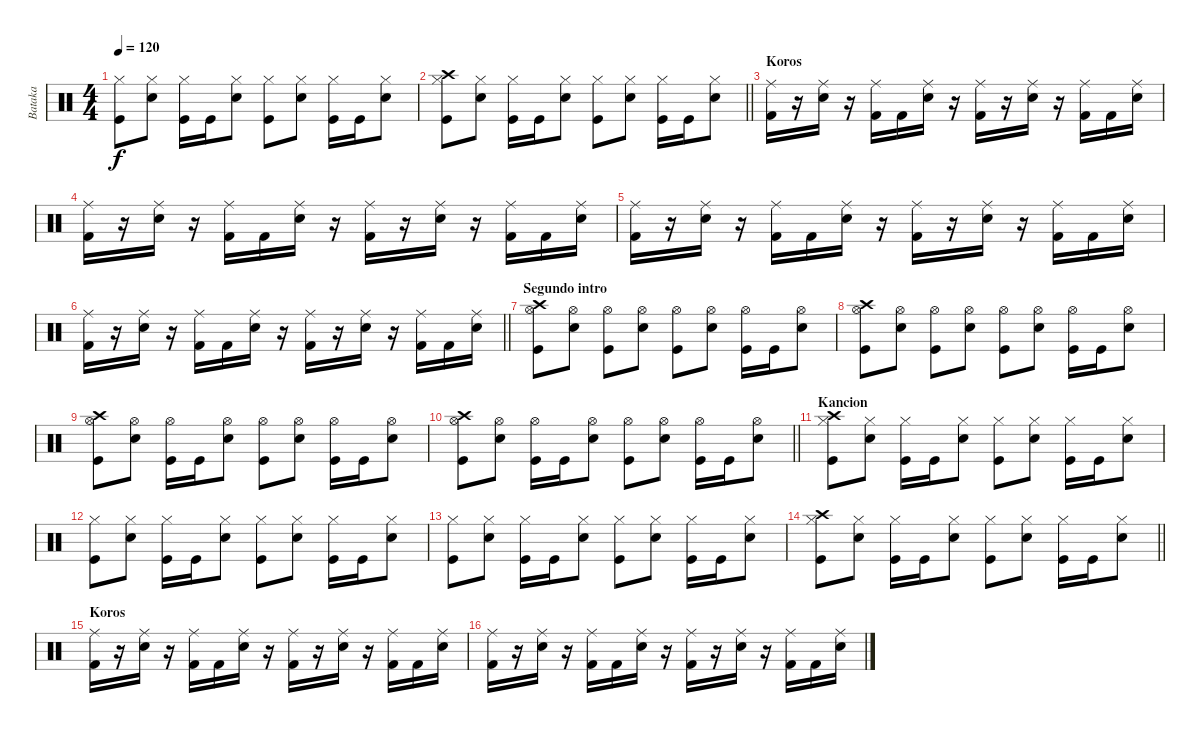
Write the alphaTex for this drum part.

\track ("Bataka" "Bataka") {instrument percussion}
\staff {score}
\articulation defaults
\ts (4 4)
\tempo 120
\clef neutral
\ks c
("Hi-Hat (closed)" "Kick (hit)").8{dy f} ("Hi-Hat (closed)" "Electric Snare (hit)").8 ("Hi-Hat (closed)" "Kick (hit)").16 "Kick (hit)".16 ("Hi-Hat (closed)" "Electric Snare (hit)").8 ("Hi-Hat (closed)" "Kick (hit)").8 ("Hi-Hat (closed)" "Electric Snare (hit)").8 ("Hi-Hat (closed)" "Kick (hit)").16 "Kick (hit)".16 ("Hi-Hat (closed)" "Electric Snare (hit)").8 |
\barLineRight lightlight
("Crash high (hit)" "Hi-Hat (closed)" "Kick (hit)").8 ("Hi-Hat (closed)" "Electric Snare (hit)").8 ("Hi-Hat (closed)" "Kick (hit)").16 "Kick (hit)".16 ("Hi-Hat (closed)" "Electric Snare (hit)").8 ("Hi-Hat (closed)" "Kick (hit)").8 ("Hi-Hat (closed)" "Electric Snare (hit)").8 ("Hi-Hat (closed)" "Kick (hit)").16 "Kick (hit)".16 ("Hi-Hat (closed)" "Electric Snare (hit)").8 |
\section ("" "Koros")
("Ride (middle)" "Kick (hit) 2").16 r.16 ("Ride (middle)" "Snare (hit) 2").16 r.16 ("Ride (middle)" "Kick (hit) 2").16 "Kick (hit) 2".16 ("Ride (middle)" "Snare (hit) 2").16 r.16 ("Ride (middle)" "Kick (hit) 2").16 r.16 ("Ride (middle)" "Snare (hit) 2").16 r.16 ("Ride (middle)" "Kick (hit) 2").16 "Kick (hit) 2".16 ("Ride (middle)" "Snare (hit) 2").16 |
("Ride (middle)" "Kick (hit) 2").16 r.16 ("Ride (middle)" "Snare (hit) 2").16 r.16 ("Ride (middle)" "Kick (hit) 2").16 "Kick (hit) 2".16 ("Ride (middle)" "Snare (hit) 2").16 r.16 ("Ride (middle)" "Kick (hit) 2").16 r.16 ("Ride (middle)" "Snare (hit) 2").16 r.16 ("Ride (middle)" "Kick (hit) 2").16 "Kick (hit) 2".16 ("Ride (middle)" "Snare (hit) 2").16 |
("Ride (middle)" "Kick (hit) 2").16 r.16 ("Ride (middle)" "Snare (hit) 2").16 r.16 ("Ride (middle)" "Kick (hit) 2").16 "Kick (hit) 2".16 ("Ride (middle)" "Snare (hit) 2").16 r.16 ("Ride (middle)" "Kick (hit) 2").16 r.16 ("Ride (middle)" "Snare (hit) 2").16 r.16 ("Ride (middle)" "Kick (hit) 2").16 "Kick (hit) 2".16 ("Ride (middle)" "Snare (hit) 2").16 |
\barLineRight lightlight
("Ride (middle)" "Kick (hit) 2").16 r.16 ("Ride (middle)" "Snare (hit) 2").16 r.16 ("Ride (middle)" "Kick (hit) 2").16 "Kick (hit) 2".16 ("Ride (middle)" "Snare (hit) 2").16 r.16 ("Ride (middle)" "Kick (hit) 2").16 r.16 ("Ride (middle)" "Snare (hit) 2").16 r.16 ("Ride (middle)" "Kick (hit) 2").16 "Kick (hit) 2".16 ("Ride (middle)" "Snare (hit) 2").16 |
\section ("" "Segundo intro")
("Crash high (hit)" "Hi-Hat (open)" "Kick (hit)").8 ("Hi-Hat (open)" "Electric Snare (hit)").8 ("Hi-Hat (open)" "Kick (hit)").8 ("Hi-Hat (open)" "Electric Snare (hit)").8 ("Hi-Hat (open)" "Kick (hit)").8 ("Hi-Hat (open)" "Electric Snare (hit)").8 ("Hi-Hat (open)" "Kick (hit)").16 "Kick (hit)".16 ("Hi-Hat (open)" "Electric Snare (hit)").8 |
("Crash high (hit)" "Hi-Hat (open)" "Kick (hit)").8 ("Hi-Hat (open)" "Electric Snare (hit)").8 ("Hi-Hat (open)" "Kick (hit)").8 ("Hi-Hat (open)" "Electric Snare (hit)").8 ("Hi-Hat (open)" "Kick (hit)").8 ("Hi-Hat (open)" "Electric Snare (hit)").8 ("Hi-Hat (open)" "Kick (hit)").16 "Kick (hit)".16 ("Hi-Hat (open)" "Electric Snare (hit)").8 |
("Crash high (hit)" "Hi-Hat (open)" "Kick (hit)").8 ("Hi-Hat (open)" "Electric Snare (hit)").8 ("Hi-Hat (open)" "Kick (hit)").16 "Kick (hit)".16 ("Hi-Hat (open)" "Electric Snare (hit)").8 ("Hi-Hat (open)" "Kick (hit)").8 ("Hi-Hat (open)" "Electric Snare (hit)").8 ("Hi-Hat (open)" "Kick (hit)").16 "Kick (hit)".16 ("Hi-Hat (open)" "Electric Snare (hit)").8 |
\barLineRight lightlight
("Crash high (hit)" "Hi-Hat (open)" "Kick (hit)").8 ("Hi-Hat (open)" "Electric Snare (hit)").8 ("Hi-Hat (open)" "Kick (hit)").16 "Kick (hit)".16 ("Hi-Hat (open)" "Electric Snare (hit)").8 ("Hi-Hat (open)" "Kick (hit)").8 ("Hi-Hat (open)" "Electric Snare (hit)").8 ("Hi-Hat (open)" "Kick (hit)").16 "Kick (hit)".16 ("Hi-Hat (open)" "Electric Snare (hit)").8 |
\section ("" "Kancion")
("Crash high (hit)" "Hi-Hat (closed)" "Kick (hit)").8 ("Hi-Hat (closed)" "Electric Snare (hit)").8 ("Hi-Hat (closed)" "Kick (hit)").16 "Kick (hit)".16 ("Hi-Hat (closed)" "Electric Snare (hit)").8 ("Hi-Hat (closed)" "Kick (hit)").8 ("Hi-Hat (closed)" "Electric Snare (hit)").8 ("Hi-Hat (closed)" "Kick (hit)").16 "Kick (hit)".16 ("Hi-Hat (closed)" "Electric Snare (hit)").8 |
("Hi-Hat (closed)" "Kick (hit)").8 ("Hi-Hat (closed)" "Electric Snare (hit)").8 ("Hi-Hat (closed)" "Kick (hit)").16 "Kick (hit)".16 ("Hi-Hat (closed)" "Electric Snare (hit)").8 ("Hi-Hat (closed)" "Kick (hit)").8 ("Hi-Hat (closed)" "Electric Snare (hit)").8 ("Hi-Hat (closed)" "Kick (hit)").16 "Kick (hit)".16 ("Hi-Hat (closed)" "Electric Snare (hit)").8 |
("Hi-Hat (closed)" "Kick (hit)").8 ("Hi-Hat (closed)" "Electric Snare (hit)").8 ("Hi-Hat (closed)" "Kick (hit)").16 "Kick (hit)".16 ("Hi-Hat (closed)" "Electric Snare (hit)").8 ("Hi-Hat (closed)" "Kick (hit)").8 ("Hi-Hat (closed)" "Electric Snare (hit)").8 ("Hi-Hat (closed)" "Kick (hit)").16 "Kick (hit)".16 ("Hi-Hat (closed)" "Electric Snare (hit)").8 |
\barLineRight lightlight
("Crash high (hit)" "Hi-Hat (closed)" "Kick (hit)").8 ("Hi-Hat (closed)" "Electric Snare (hit)").8 ("Hi-Hat (closed)" "Kick (hit)").16 "Kick (hit)".16 ("Hi-Hat (closed)" "Electric Snare (hit)").8 ("Hi-Hat (closed)" "Kick (hit)").8 ("Hi-Hat (closed)" "Electric Snare (hit)").8 ("Hi-Hat (closed)" "Kick (hit)").16 "Kick (hit)".16 ("Hi-Hat (closed)" "Electric Snare (hit)").8 |
\section ("" "Koros")
("Ride (middle)" "Kick (hit) 2").16 r.16 ("Ride (middle)" "Snare (hit) 2").16 r.16 ("Ride (middle)" "Kick (hit) 2").16 "Kick (hit) 2".16 ("Ride (middle)" "Snare (hit) 2").16 r.16 ("Ride (middle)" "Kick (hit) 2").16 r.16 ("Ride (middle)" "Snare (hit) 2").16 r.16 ("Ride (middle)" "Kick (hit) 2").16 "Kick (hit) 2".16 ("Ride (middle)" "Snare (hit) 2").16 |
("Ride (middle)" "Kick (hit) 2").16 r.16 ("Ride (middle)" "Snare (hit) 2").16 r.16 ("Ride (middle)" "Kick (hit) 2").16 "Kick (hit) 2".16 ("Ride (middle)" "Snare (hit) 2").16 r.16 ("Ride (middle)" "Kick (hit) 2").16 r.16 ("Ride (middle)" "Snare (hit) 2").16 r.16 ("Ride (middle)" "Kick (hit) 2").16 "Kick (hit) 2".16 ("Ride (middle)" "Snare (hit) 2").16
